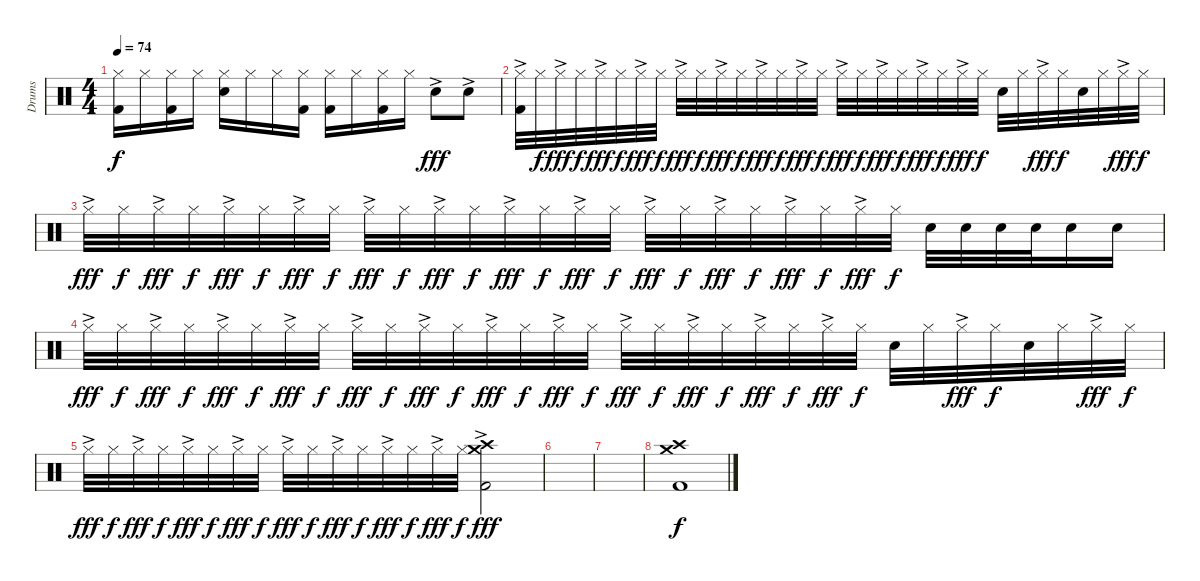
\track ("Drums" "Drums") {instrument percussion}
\staff {score}
\articulation defaults
\ts (4 4)
\tempo 74
\clef neutral
\ks aminor
("Hi-Hat (closed)" "Kick (hit) 2").16{dy f} "Hi-Hat (closed)".16 ("Hi-Hat (closed)" "Kick (hit) 2").16 "Hi-Hat (closed)".16 ("Hi-Hat (closed)" "Snare (hit) 2").16 "Hi-Hat (closed)".16 "Hi-Hat (closed)".16 ("Hi-Hat (closed)" "Kick (hit) 2").16 ("Hi-Hat (closed)" "Kick (hit) 2").16 "Hi-Hat (closed)".16 ("Hi-Hat (closed)" "Kick (hit) 2").16 "Hi-Hat (closed)".16 "Snare (hit) 2"{ac}.8{dy fff} "Snare (hit) 2"{ac}.8 |
("Hi-Hat (closed)"{ac} "Kick (hit) 2").32 "Hi-Hat (closed)".32{dy f} "Hi-Hat (closed)"{ac}.32{dy fff} "Hi-Hat (closed)".32{dy f} "Hi-Hat (closed)"{ac}.32{dy fff} "Hi-Hat (closed)".32{dy f} "Hi-Hat (closed)"{ac}.32{dy fff} "Hi-Hat (closed)".32{dy f} "Hi-Hat (closed)"{ac}.32{dy fff} "Hi-Hat (closed)".32{dy f} "Hi-Hat (closed)"{ac}.32{dy fff} "Hi-Hat (closed)".32{dy f} "Hi-Hat (closed)"{ac}.32{dy fff} "Hi-Hat (closed)".32{dy f} "Hi-Hat (closed)"{ac}.32{dy fff} "Hi-Hat (closed)".32{dy f} "Hi-Hat (closed)"{ac}.32{dy fff} "Hi-Hat (closed)".32{dy f} "Hi-Hat (closed)"{ac}.32{dy fff} "Hi-Hat (closed)".32{dy f} "Hi-Hat (closed)"{ac}.32{dy fff} "Hi-Hat (closed)".32{dy f} "Hi-Hat (closed)"{ac}.32{dy fff} "Hi-Hat (closed)".32{dy f} "Snare (hit) 2".32 "Hi-Hat (closed)".32 "Hi-Hat (closed)"{ac}.32{dy fff} "Hi-Hat (closed)".32{dy f} "Snare (hit) 2".32 "Hi-Hat (closed)".32 "Hi-Hat (closed)"{ac}.32{dy fff} "Hi-Hat (closed)".32{dy f} |
"Hi-Hat (closed)"{ac}.32{dy fff} "Hi-Hat (closed)".32{dy f} "Hi-Hat (closed)"{ac}.32{dy fff} "Hi-Hat (closed)".32{dy f} "Hi-Hat (closed)"{ac}.32{dy fff} "Hi-Hat (closed)".32{dy f} "Hi-Hat (closed)"{ac}.32{dy fff} "Hi-Hat (closed)".32{dy f} "Hi-Hat (closed)"{ac}.32{dy fff} "Hi-Hat (closed)".32{dy f} "Hi-Hat (closed)"{ac}.32{dy fff} "Hi-Hat (closed)".32{dy f} "Hi-Hat (closed)"{ac}.32{dy fff} "Hi-Hat (closed)".32{dy f} "Hi-Hat (closed)"{ac}.32{dy fff} "Hi-Hat (closed)".32{dy f} "Hi-Hat (closed)"{ac}.32{dy fff} "Hi-Hat (closed)".32{dy f} "Hi-Hat (closed)"{ac}.32{dy fff} "Hi-Hat (closed)".32{dy f} "Hi-Hat (closed)"{ac}.32{dy fff} "Hi-Hat (closed)".32{dy f} "Hi-Hat (closed)"{ac}.32{dy fff} "Hi-Hat (closed)".32{dy f} "Snare (hit) 2".32 "Snare (hit) 2".32 "Snare (hit) 2".32 "Snare (hit) 2".32 "Snare (hit) 2".16 "Snare (hit) 2".16 |
"Hi-Hat (closed)"{ac}.32{dy fff} "Hi-Hat (closed)".32{dy f} "Hi-Hat (closed)"{ac}.32{dy fff} "Hi-Hat (closed)".32{dy f} "Hi-Hat (closed)"{ac}.32{dy fff} "Hi-Hat (closed)".32{dy f} "Hi-Hat (closed)"{ac}.32{dy fff} "Hi-Hat (closed)".32{dy f} "Hi-Hat (closed)"{ac}.32{dy fff} "Hi-Hat (closed)".32{dy f} "Hi-Hat (closed)"{ac}.32{dy fff} "Hi-Hat (closed)".32{dy f} "Hi-Hat (closed)"{ac}.32{dy fff} "Hi-Hat (closed)".32{dy f} "Hi-Hat (closed)"{ac}.32{dy fff} "Hi-Hat (closed)".32{dy f} "Hi-Hat (closed)"{ac}.32{dy fff} "Hi-Hat (closed)".32{dy f} "Hi-Hat (closed)"{ac}.32{dy fff} "Hi-Hat (closed)".32{dy f} "Hi-Hat (closed)"{ac}.32{dy fff} "Hi-Hat (closed)".32{dy f} "Hi-Hat (closed)"{ac}.32{dy fff} "Hi-Hat (closed)".32{dy f} "Snare (hit) 2".32 "Hi-Hat (closed)".32 "Hi-Hat (closed)"{ac}.32{dy fff} "Hi-Hat (closed)".32{dy f} "Snare (hit) 2".32 "Hi-Hat (closed)".32 "Hi-Hat (closed)"{ac}.32{dy fff} "Hi-Hat (closed)".32{dy f} |
"Hi-Hat (closed)"{ac}.32{dy fff} "Hi-Hat (closed)".32{dy f} "Hi-Hat (closed)"{ac}.32{dy fff} "Hi-Hat (closed)".32{dy f} "Hi-Hat (closed)"{ac}.32{dy fff} "Hi-Hat (closed)".32{dy f} "Hi-Hat (closed)"{ac}.32{dy fff} "Hi-Hat (closed)".32{dy f} "Hi-Hat (closed)"{ac}.32{dy fff} "Hi-Hat (closed)".32{dy f} "Hi-Hat (closed)"{ac}.32{dy fff} "Hi-Hat (closed)".32{dy f} "Hi-Hat (closed)"{ac}.32{dy fff} "Hi-Hat (closed)".32{dy f} "Hi-Hat (closed)"{ac}.32{dy fff} "Hi-Hat (closed)".32{dy f} ("Crash high (hit)" "Crash medium (hit)" "Kick (hit) 2"{ac}).2{dy fff} |
|
|
("Crash high (hit)" "Crash medium (hit)" "Kick (hit) 2").1{dy f}
